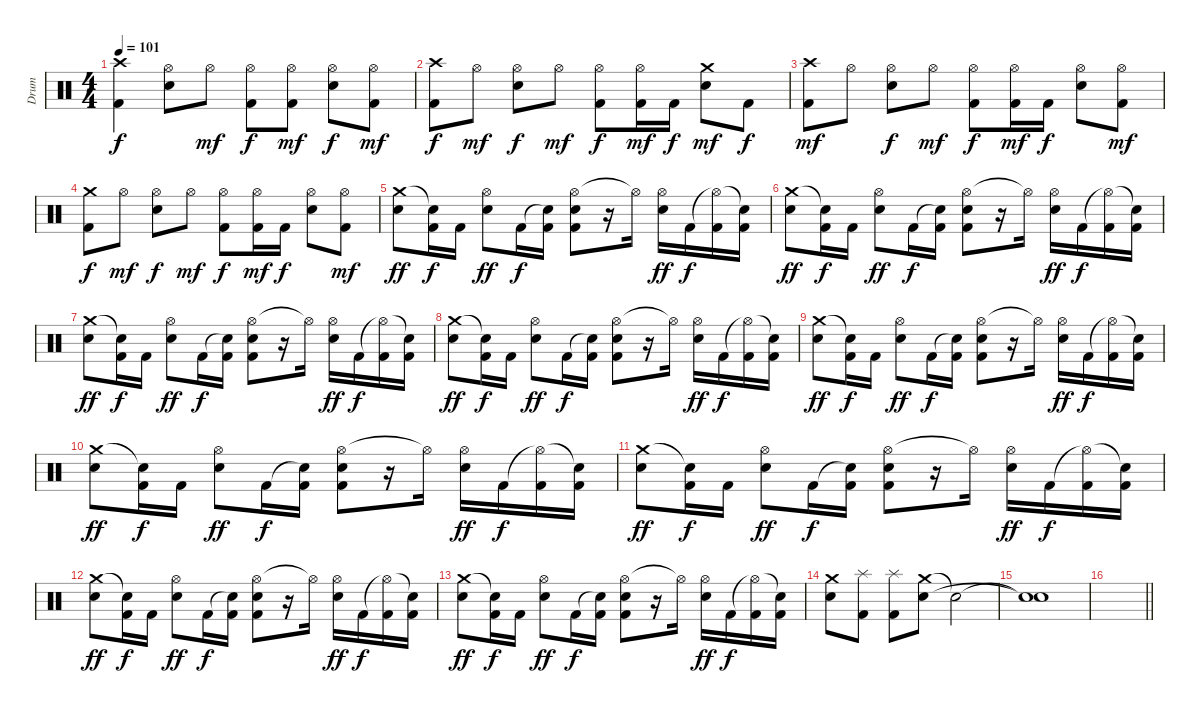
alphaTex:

\track ("Drum" "Drum") {instrument percussion}
\staff {score}
\articulation defaults
\ts (4 4)
\tempo 101
\clef neutral
\ks c
("Crash high (hit)" "Kick (hit) 2").4{dy f} ("Hi-Hat (open)" "Snare (hit) 2").8 "Hi-Hat (open)".8{dy mf} ("Hi-Hat (open)" "Kick (hit) 2").8{dy f} ("Hi-Hat (open)" "Kick (hit) 2").8{dy mf} ("Hi-Hat (open)" "Snare (hit) 2").8{dy f} ("Hi-Hat (open)" "Kick (hit) 2").8{dy mf} |
("Crash high (hit)" "Kick (hit) 2").8{dy f} "Hi-Hat (open)".8{dy mf} ("Hi-Hat (open)" "Snare (hit) 2").8{dy f} "Hi-Hat (open)".8{dy mf} ("Hi-Hat (open)" "Kick (hit) 2").8{dy f} ("Hi-Hat (open)" "Kick (hit) 2").16{dy mf} "Kick (hit) 2".16{dy f} ("Crash medium (hit)" "Snare (hit) 2").8{dy mf} "Kick (hit) 2".8{dy f} |
("Crash high (hit)" "Kick (hit) 2").8{dy mf} "Hi-Hat (open)".8 ("Hi-Hat (open)" "Snare (hit) 2").8{dy f} "Hi-Hat (open)".8{dy mf} ("Hi-Hat (open)" "Kick (hit) 2").8{dy f} ("Hi-Hat (open)" "Kick (hit) 2").16{dy mf} "Kick (hit) 2".16{dy f} ("Hi-Hat (open)" "Snare (hit) 2").8 ("Hi-Hat (open)" "Kick (hit) 2").8{dy mf} |
("Crash medium (hit)" "Kick (hit) 2").8{dy f} "Hi-Hat (open)".8{dy mf} ("Hi-Hat (open)" "Snare (hit) 2").8{dy f} "Hi-Hat (open)".8{dy mf} ("Hi-Hat (open)" "Kick (hit) 2").8{dy f} ("Hi-Hat (open)" "Kick (hit) 2").16{dy mf} "Kick (hit) 2".16{dy f} ("Hi-Hat (open)" "Snare (hit) 2").8 ("Hi-Hat (open)" "Kick (hit) 2").8{dy mf} |
("Crash medium (hit)" "Snare (hit) 2").8{dy ff} ("Snare (hit)"{t} "Kick (hit) 2").16{dy f} "Kick (hit) 2".16 ("Hi-Hat (open)" "Snare (hit) 2").8{dy ff} "Kick (hit) 2".16{dy f} ("Snare (hit)"{t} "Kick (hit) 2").16 ("Hi-Hat (open)" "Snare (hit) 2" "Kick (hit) 2").8 r.16 "Hi-Hat (open)"{t}.16 ("Hi-Hat (open)" "Snare (hit) 2").16{dy ff} "Kick (hit) 2".16{dy f} ("Hi-Hat (open)"{t} "Kick (hit) 2").16 ("Snare (hit)"{t} "Kick (hit) 2").16 |
("Crash medium (hit)" "Snare (hit) 2").8{dy ff} ("Snare (hit)"{t} "Kick (hit) 2").16{dy f} "Kick (hit) 2".16 ("Hi-Hat (open)" "Snare (hit) 2").8{dy ff} "Kick (hit) 2".16{dy f} ("Snare (hit)"{t} "Kick (hit) 2").16 ("Hi-Hat (open)" "Snare (hit) 2" "Kick (hit) 2").8 r.16 "Hi-Hat (open)"{t}.16 ("Hi-Hat (open)" "Snare (hit) 2").16{dy ff} "Kick (hit) 2".16{dy f} ("Hi-Hat (open)"{t} "Kick (hit) 2").16 ("Snare (hit)"{t} "Kick (hit) 2").16 |
("Crash medium (hit)" "Snare (hit) 2").8{dy ff} ("Snare (hit)"{t} "Kick (hit) 2").16{dy f} "Kick (hit) 2".16 ("Hi-Hat (open)" "Snare (hit) 2").8{dy ff} "Kick (hit) 2".16{dy f} ("Snare (hit)"{t} "Kick (hit) 2").16 ("Hi-Hat (open)" "Snare (hit) 2" "Kick (hit) 2").8 r.16 "Hi-Hat (open)"{t}.16 ("Hi-Hat (open)" "Snare (hit) 2").16{dy ff} "Kick (hit) 2".16{dy f} ("Hi-Hat (open)"{t} "Kick (hit) 2").16 ("Snare (hit)"{t} "Kick (hit) 2").16 |
("Crash medium (hit)" "Snare (hit) 2").8{dy ff} ("Snare (hit)"{t} "Kick (hit) 2").16{dy f} "Kick (hit) 2".16 ("Hi-Hat (open)" "Snare (hit) 2").8{dy ff} "Kick (hit) 2".16{dy f} ("Snare (hit)"{t} "Kick (hit) 2").16 ("Hi-Hat (open)" "Snare (hit) 2" "Kick (hit) 2").8 r.16 "Hi-Hat (open)"{t}.16 ("Hi-Hat (open)" "Snare (hit) 2").16{dy ff} "Kick (hit) 2".16{dy f} ("Hi-Hat (open)"{t} "Kick (hit) 2").16 ("Snare (hit)"{t} "Kick (hit) 2").16 |
("Crash medium (hit)" "Snare (hit) 2").8{dy ff} ("Snare (hit)"{t} "Kick (hit) 2").16{dy f} "Kick (hit) 2".16 ("Hi-Hat (open)" "Snare (hit) 2").8{dy ff} "Kick (hit) 2".16{dy f} ("Snare (hit)"{t} "Kick (hit) 2").16 ("Hi-Hat (open)" "Snare (hit) 2" "Kick (hit) 2").8 r.16 "Hi-Hat (open)"{t}.16 ("Hi-Hat (open)" "Snare (hit) 2").16{dy ff} "Kick (hit) 2".16{dy f} ("Hi-Hat (open)"{t} "Kick (hit) 2").16 ("Snare (hit)"{t} "Kick (hit) 2").16 |
("Crash medium (hit)" "Snare (hit) 2").8{dy ff} ("Snare (hit)"{t} "Kick (hit) 2").16{dy f} "Kick (hit) 2".16 ("Hi-Hat (open)" "Snare (hit) 2").8{dy ff} "Kick (hit) 2".16{dy f} ("Snare (hit)"{t} "Kick (hit) 2").16 ("Hi-Hat (open)" "Snare (hit) 2" "Kick (hit) 2").8 r.16 "Hi-Hat (open)"{t}.16 ("Hi-Hat (open)" "Snare (hit) 2").16{dy ff} "Kick (hit) 2".16{dy f} ("Hi-Hat (open)"{t} "Kick (hit) 2").16 ("Snare (hit)"{t} "Kick (hit) 2").16 |
("Crash medium (hit)" "Snare (hit) 2").8{dy ff} ("Snare (hit)"{t} "Kick (hit) 2").16{dy f} "Kick (hit) 2".16 ("Hi-Hat (open)" "Snare (hit) 2").8{dy ff} "Kick (hit) 2".16{dy f} ("Snare (hit)"{t} "Kick (hit) 2").16 ("Hi-Hat (open)" "Snare (hit) 2" "Kick (hit) 2").8 r.16 "Hi-Hat (open)"{t}.16 ("Hi-Hat (open)" "Snare (hit) 2").16{dy ff} "Kick (hit) 2".16{dy f} ("Hi-Hat (open)"{t} "Kick (hit) 2").16 ("Snare (hit)"{t} "Kick (hit) 2").16 |
("Crash medium (hit)" "Snare (hit) 2").8{dy ff} ("Snare (hit)"{t} "Kick (hit) 2").16{dy f} "Kick (hit) 2".16 ("Hi-Hat (open)" "Snare (hit) 2").8{dy ff} "Kick (hit) 2".16{dy f} ("Snare (hit)"{t} "Kick (hit) 2").16 ("Hi-Hat (open)" "Snare (hit) 2" "Kick (hit) 2").8 r.16 "Hi-Hat (open)"{t}.16 ("Hi-Hat (open)" "Snare (hit) 2").16{dy ff} "Kick (hit) 2".16{dy f} ("Hi-Hat (open)"{t} "Kick (hit) 2").16 ("Snare (hit)"{t} "Kick (hit) 2").16 |
("Crash medium (hit)" "Snare (hit) 2").8{dy ff} ("Snare (hit)"{t} "Kick (hit) 2").16{dy f} "Kick (hit) 2".16 ("Hi-Hat (open)" "Snare (hit) 2").8{dy ff} "Kick (hit) 2".16{dy f} ("Snare (hit)"{t} "Kick (hit) 2").16 ("Hi-Hat (open)" "Snare (hit) 2" "Kick (hit) 2").8 r.16 "Hi-Hat (open)"{t}.16 ("Hi-Hat (open)" "Snare (hit) 2").16{dy ff} "Kick (hit) 2".16{dy f} ("Hi-Hat (open)"{t} "Kick (hit) 2").16 ("Snare (hit)"{t} "Kick (hit) 2").16 |
("Crash medium (hit)" "Snare (hit) 2").8 ("Splash (hit)" "Kick (hit) 2").8 ("Splash (hit)" "Kick (hit) 2").8 ("Crash medium (hit)" "Snare (hit) 2").8 "Snare (hit)"{t}.2 |
("Snare (hit)"{t} "Snare (hit)"{t}).1 |
\barLineRight lightlight
